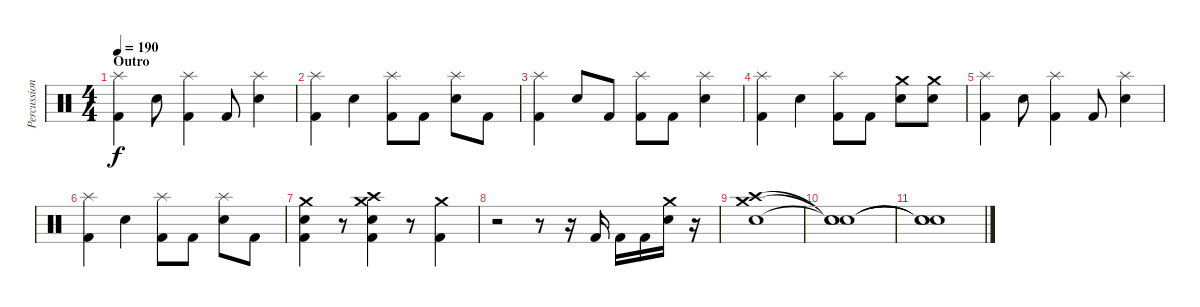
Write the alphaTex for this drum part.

\track ("Percussion" "Percussion") {instrument percussion}
\staff {score}
\articulation defaults
\ts (4 4)
\section ("" "Outro")
\tempo 190
\clef neutral
\ks c
("Splash (hit)" "Kick (hit) 2").4{dy f} "Electric Snare (hit)".8 ("Splash (hit)" "Kick (hit) 2").4 "Kick (hit) 2".8 ("Splash (hit)" "Electric Snare (hit)").4 |
("Splash (hit)" "Kick (hit) 2").4 "Electric Snare (hit)".4 ("Splash (hit)" "Kick (hit) 2").8 "Kick (hit) 2".8 ("Splash (hit)" "Electric Snare (hit)").8 "Kick (hit) 2".8 |
("Splash (hit)" "Kick (hit) 2").4 "Electric Snare (hit)".8 "Kick (hit) 2".8 ("Splash (hit)" "Kick (hit) 2").8 "Kick (hit) 2".8 ("Splash (hit)" "Electric Snare (hit)").4 |
("Splash (hit)" "Kick (hit) 2").4 "Electric Snare (hit)".4 ("Splash (hit)" "Kick (hit) 2").8 "Kick (hit) 2".8 ("Crash medium (hit)" "Electric Snare (hit)").8 ("Crash medium (hit)" "Electric Snare (hit)").8 |
("Splash (hit)" "Kick (hit) 2").4 "Electric Snare (hit)".8 ("Splash (hit)" "Kick (hit) 2").4 "Kick (hit) 2".8 ("Splash (hit)" "Electric Snare (hit)").4 |
("Splash (hit)" "Kick (hit) 2").4 "Electric Snare (hit)".4 ("Splash (hit)" "Kick (hit) 2").8 "Kick (hit) 2".8 ("Splash (hit)" "Electric Snare (hit)").8 "Kick (hit) 2".8 |
("Crash medium (hit)" "Electric Snare (hit)" "Kick (hit) 2").4 r.8 ("Crash high (hit)" "Crash medium (hit)" "Electric Snare (hit)" "Kick (hit) 2").4 r.8 ("Crash medium (hit)" "Kick (hit) 2").4 |
r.2 r.8 r.16 "Kick (hit) 2".16 "Kick (hit) 2".16 "Kick (hit) 2".16 ("Crash medium (hit)" "Electric Snare (hit)").16 r.16 |
("Crash high (hit)" "Crash medium (hit)" "Electric Snare (hit)").1 |
("Snare (hit)"{t} "Snare (hit)"{t} "Snare (hit)"{t}).1 |
("Snare (hit)"{t} "Snare (hit)"{t} "Snare (hit)"{t}).1
